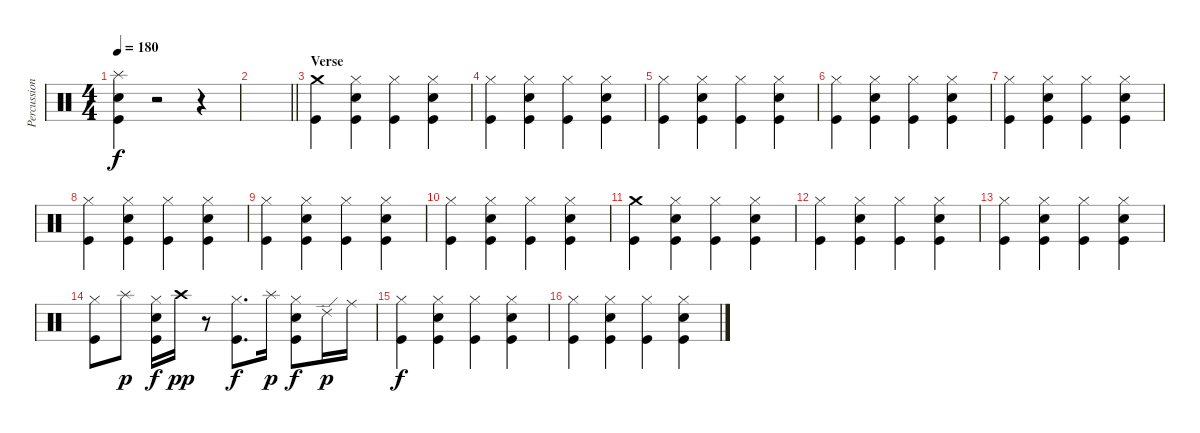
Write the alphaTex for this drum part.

\track ("Percussion" "Percussion") {instrument percussion}
\staff {score}
\articulation defaults
\ts (4 4)
\tempo 180
\clef neutral
\ks c
("Splash (hit)" "Snare (hit) 2" "Kick (hit)").4{dy f} r.2 r.4 |
\barLineRight lightlight
|
\section ("" "Verse")
("Crash medium (hit)" "Kick (hit)").4 ("Hi-Hat (closed)" "Snare (hit) 2" "Kick (hit)").4 ("Hi-Hat (closed)" "Kick (hit)").4 ("Hi-Hat (closed)" "Snare (hit) 2" "Kick (hit)").4 |
("Hi-Hat (closed)" "Kick (hit)").4 ("Hi-Hat (closed)" "Snare (hit) 2" "Kick (hit)").4 ("Hi-Hat (closed)" "Kick (hit)").4 ("Hi-Hat (closed)" "Snare (hit) 2" "Kick (hit)").4 |
("Hi-Hat (closed)" "Kick (hit)").4 ("Hi-Hat (closed)" "Snare (hit) 2" "Kick (hit)").4 ("Hi-Hat (closed)" "Kick (hit)").4 ("Hi-Hat (closed)" "Snare (hit) 2" "Kick (hit)").4 |
("Hi-Hat (closed)" "Kick (hit)").4 ("Hi-Hat (closed)" "Snare (hit) 2" "Kick (hit)").4 ("Hi-Hat (closed)" "Kick (hit)").4 ("Hi-Hat (closed)" "Snare (hit) 2" "Kick (hit)").4 |
("Hi-Hat (closed)" "Kick (hit)").4 ("Hi-Hat (closed)" "Snare (hit) 2" "Kick (hit)").4 ("Hi-Hat (closed)" "Kick (hit)").4 ("Hi-Hat (closed)" "Snare (hit) 2" "Kick (hit)").4 |
("Hi-Hat (closed)" "Kick (hit)").4 ("Hi-Hat (closed)" "Snare (hit) 2" "Kick (hit)").4 ("Hi-Hat (closed)" "Kick (hit)").4 ("Hi-Hat (closed)" "Snare (hit) 2" "Kick (hit)").4 |
("Hi-Hat (closed)" "Kick (hit)").4 ("Hi-Hat (closed)" "Snare (hit) 2" "Kick (hit)").4 ("Hi-Hat (closed)" "Kick (hit)").4 ("Hi-Hat (closed)" "Snare (hit) 2" "Kick (hit)").4 |
("Hi-Hat (closed)" "Kick (hit)").4 ("Hi-Hat (closed)" "Snare (hit) 2" "Kick (hit)").4 ("Hi-Hat (closed)" "Kick (hit)").4 ("Hi-Hat (closed)" "Snare (hit) 2" "Kick (hit)").4 |
("Crash medium (hit)" "Kick (hit)").4 ("Hi-Hat (closed)" "Snare (hit) 2" "Kick (hit)").4 ("Hi-Hat (closed)" "Kick (hit)").4 ("Hi-Hat (closed)" "Snare (hit) 2" "Kick (hit)").4 |
("Hi-Hat (closed)" "Kick (hit)").4 ("Hi-Hat (closed)" "Snare (hit) 2" "Kick (hit)").4 ("Hi-Hat (closed)" "Kick (hit)").4 ("Hi-Hat (closed)" "Snare (hit) 2" "Kick (hit)").4 |
("Hi-Hat (closed)" "Kick (hit)").4 ("Hi-Hat (closed)" "Snare (hit) 2" "Kick (hit)").4 ("Hi-Hat (closed)" "Kick (hit)").4 ("Hi-Hat (closed)" "Snare (hit) 2" "Kick (hit)").4 |
("Hi-Hat (closed)" "Kick (hit)").8 "Splash (hit)".8{dy p} ("Hi-Hat (closed)" "Snare (hit) 2" "Kick (hit)").16{dy f} "Crash high (hit)".16{dy pp} r.8 ("Hi-Hat (closed)" "Kick (hit)").8{d dy f} "Splash (hit)".16{dy p} ("Hi-Hat (closed)" "Snare (hit) 2" "Kick (hit)").8{dy f} "Ride (edge) 2".16{dy p} "Ride (middle)".16 |
("Hi-Hat (closed)" "Kick (hit)").4{dy f} ("Hi-Hat (closed)" "Snare (hit) 2" "Kick (hit)").4 ("Hi-Hat (closed)" "Kick (hit)").4 ("Hi-Hat (closed)" "Snare (hit) 2" "Kick (hit)").4 |
("Hi-Hat (closed)" "Kick (hit)").4 ("Hi-Hat (closed)" "Snare (hit) 2" "Kick (hit)").4 ("Hi-Hat (closed)" "Kick (hit)").4 ("Hi-Hat (closed)" "Snare (hit) 2" "Kick (hit)").4
